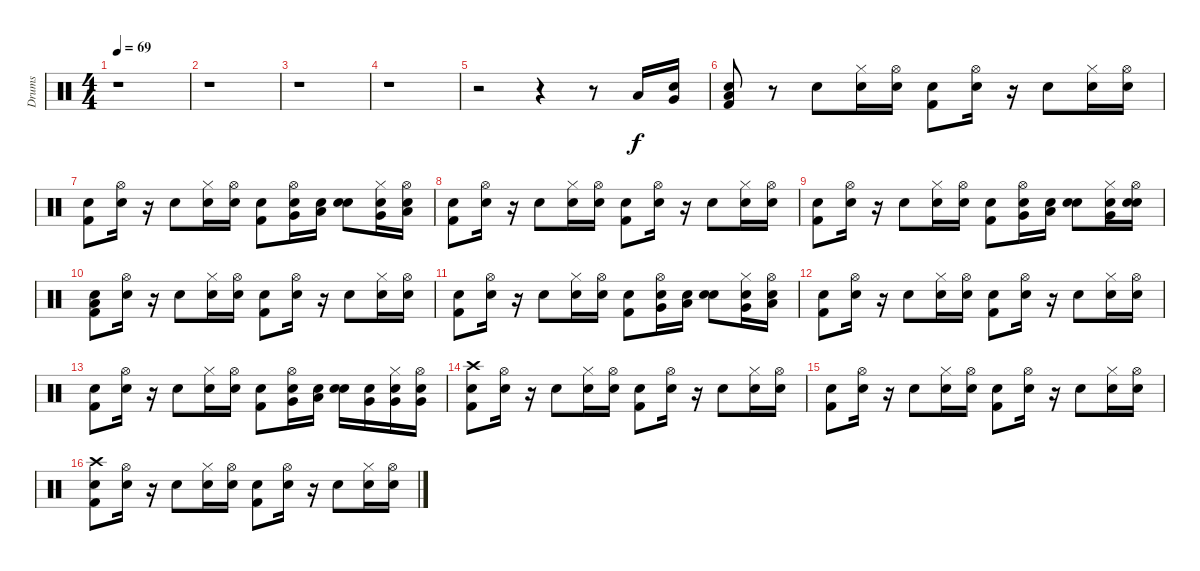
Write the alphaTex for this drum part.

\track ("Drums" "Drums") {instrument percussion}
\staff {score}
\articulation defaults
\ts (4 4)
\tempo 69
\clef neutral
\ks c
r.1{dy f} |
r.1 |
r.1 |
r.1 |
r.2 r.4 r.8 "Low Tom (hit)".16 ("Snare (hit)" "Very Low Tom (hit)").16 |
("Snare (hit)" "Low Floor Tom (hit)" "Kick (hit) 2").8 r.8 "Snare (hit) 2".8 ("Snare (hit)" "Hi-Hat (closed)").16 ("Snare (hit)" "Hi-Hat (open)").16 ("Snare (hit)" "Kick (hit) 2").8 ("Snare (hit)" "Hi-Hat (open)").16 r.16 "Snare (hit) 2".8 ("Snare (hit)" "Hi-Hat (closed)").16 ("Snare (hit)" "Hi-Hat (open)").16 |
("Snare (hit)" "Kick (hit) 2").8 ("Snare (hit)" "Hi-Hat (open)").16 r.16 "Snare (hit) 2".8 ("Snare (hit)" "Hi-Hat (closed)").16 ("Snare (hit)" "Hi-Hat (open)").16 ("Snare (hit)" "Kick (hit) 2").8 ("Snare (hit)" "Very Low Tom (hit)" "Hi-Hat (open)").16 ("Snare (hit)" "Low Floor Tom (hit)").16 ("Snare (hit)" "Snare (hit) 2").8 ("Snare (hit)" "Very Low Tom (hit)" "Hi-Hat (closed)").16 ("Snare (hit)" "Low Tom (hit)" "Hi-Hat (open)").16 |
("Snare (hit)" "Kick (hit) 2").8 ("Snare (hit)" "Hi-Hat (open)").16 r.16 "Snare (hit) 2".8 ("Snare (hit)" "Hi-Hat (closed)").16 ("Snare (hit)" "Hi-Hat (open)").16 ("Snare (hit)" "Kick (hit) 2").8 ("Snare (hit)" "Hi-Hat (open)").16 r.16 "Snare (hit) 2".8 ("Snare (hit)" "Hi-Hat (closed)").16 ("Snare (hit)" "Hi-Hat (open)").16 |
("Snare (hit)" "Kick (hit) 2").8 ("Snare (hit)" "Hi-Hat (open)").16 r.16 "Snare (hit) 2".8 ("Snare (hit)" "Hi-Hat (closed)").16 ("Snare (hit)" "Hi-Hat (open)").16 ("Snare (hit)" "Kick (hit) 2").8 ("Snare (hit)" "Very Low Tom (hit)" "Hi-Hat (open)").16 ("Snare (hit)" "Low Floor Tom (hit)").16 ("Snare (hit)" "Snare (hit) 2").8 ("Snare (hit)" "Very Low Tom (hit)" "Hi-Hat (closed)").16 ("Snare (hit)" "Snare (hit) 2" "Hi-Hat (open)").16 |
("Snare (hit)" "Low Floor Tom (hit)" "Kick (hit) 2").8 ("Snare (hit)" "Hi-Hat (open)").16 r.16 "Snare (hit) 2".8 ("Snare (hit)" "Hi-Hat (closed)").16 ("Snare (hit)" "Hi-Hat (open)").16 ("Snare (hit)" "Kick (hit) 2").8 ("Snare (hit)" "Hi-Hat (open)").16 r.16 "Snare (hit) 2".8 ("Snare (hit)" "Hi-Hat (closed)").16 ("Snare (hit)" "Hi-Hat (open)").16 |
("Snare (hit)" "Kick (hit) 2").8 ("Snare (hit)" "Hi-Hat (open)").16 r.16 "Snare (hit) 2".8 ("Snare (hit)" "Hi-Hat (closed)").16 ("Snare (hit)" "Hi-Hat (open)").16 ("Snare (hit)" "Kick (hit) 2").8 ("Snare (hit)" "Very Low Tom (hit)" "Hi-Hat (open)").16 ("Snare (hit)" "Low Floor Tom (hit)").16 ("Snare (hit)" "Snare (hit) 2").8 ("Snare (hit)" "Very Low Tom (hit)" "Hi-Hat (closed)").16 ("Snare (hit)" "Low Tom (hit)" "Hi-Hat (open)").16 |
("Snare (hit)" "Kick (hit) 2").8 ("Snare (hit)" "Hi-Hat (open)").16 r.16 "Snare (hit) 2".8 ("Snare (hit)" "Hi-Hat (closed)").16 ("Snare (hit)" "Hi-Hat (open)").16 ("Snare (hit)" "Kick (hit) 2").8 ("Snare (hit)" "Hi-Hat (open)").16 r.16 "Snare (hit) 2".8 ("Snare (hit)" "Hi-Hat (closed)").16 ("Snare (hit)" "Hi-Hat (open)").16 |
("Snare (hit)" "Kick (hit) 2").8 ("Snare (hit)" "Hi-Hat (open)").16 r.16 "Snare (hit) 2".8 ("Snare (hit)" "Hi-Hat (closed)").16 ("Snare (hit)" "Hi-Hat (open)").16 ("Snare (hit)" "Kick (hit) 2").8 ("Snare (hit)" "Very Low Tom (hit)" "Hi-Hat (open)").16 ("Snare (hit)" "Low Floor Tom (hit)").16 ("Snare (hit)" "Snare (hit) 2").16 ("Snare (hit)" "Very Low Tom (hit)").16 ("Snare (hit)" "Very Low Tom (hit)" "Hi-Hat (closed)").16 ("Snare (hit)" "Very Low Tom (hit)" "Hi-Hat (open)").16 |
("Snare (hit)" "Crash high (hit)" "Kick (hit) 2").8 ("Snare (hit)" "Hi-Hat (open)").16 r.16 "Snare (hit) 2".8 ("Snare (hit)" "Hi-Hat (closed)").16 ("Snare (hit)" "Hi-Hat (open)").16 ("Snare (hit)" "Kick (hit) 2").8 ("Snare (hit)" "Hi-Hat (open)").16 r.16 "Snare (hit) 2".8 ("Snare (hit)" "Hi-Hat (closed)").16 ("Snare (hit)" "Hi-Hat (open)").16 |
("Snare (hit)" "Kick (hit) 2").8 ("Snare (hit)" "Hi-Hat (open)").16 r.16 "Snare (hit) 2".8 ("Snare (hit)" "Hi-Hat (closed)").16 ("Snare (hit)" "Hi-Hat (open)").16 ("Snare (hit)" "Kick (hit) 2").8 ("Snare (hit)" "Hi-Hat (open)").16 r.16 "Snare (hit) 2".8 ("Snare (hit)" "Hi-Hat (closed)").16 ("Snare (hit)" "Hi-Hat (open)").16 |
("Snare (hit)" "Crash high (hit)" "Kick (hit) 2").8 ("Snare (hit)" "Hi-Hat (open)").16 r.16 "Snare (hit) 2".8 ("Snare (hit)" "Hi-Hat (closed)").16 ("Snare (hit)" "Hi-Hat (open)").16 ("Snare (hit)" "Kick (hit) 2").8 ("Snare (hit)" "Hi-Hat (open)").16 r.16 "Snare (hit) 2".8 ("Snare (hit)" "Hi-Hat (closed)").16 ("Snare (hit)" "Hi-Hat (open)").16
